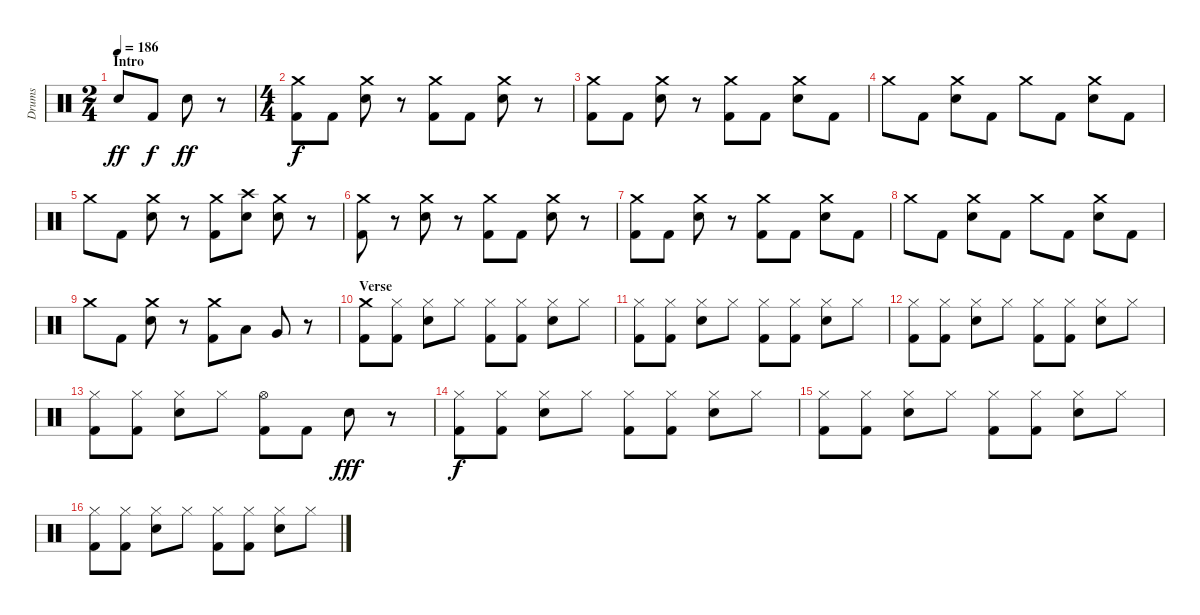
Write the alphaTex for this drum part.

\track ("Drums" "Drums") {instrument percussion}
\staff {score}
\articulation defaults
\ts (2 4)
\section ("" "Intro")
\tempo 186
\clef neutral
\ks c "Electric Snare (hit)".8{dy ff} "Kick (hit) 2".8{dy f} "Electric Snare (hit)".8{dy ff}
r.8 |
\ts (4 4)
("Crash medium (hit)" "Kick (hit) 2").8{dy f} "Kick (hit) 2".8 ("Crash medium (hit)" "Electric Snare (hit)").8 r.8 ("Crash medium (hit)" "Kick (hit) 2").8 "Kick (hit) 2".8 ("Crash medium (hit)" "Electric Snare (hit)").8 r.8 |
("Crash medium (hit)" "Kick (hit) 2").8 "Kick (hit) 2".8 ("Crash medium (hit)" "Electric Snare (hit)").8 r.8 ("Crash medium (hit)" "Kick (hit) 2").8 "Kick (hit) 2".8 ("Crash medium (hit)" "Electric Snare (hit)").8 "Kick (hit) 2".8 |
"Crash medium (hit)".8 "Kick (hit) 2".8 ("Crash medium (hit)" "Electric Snare (hit)").8 "Kick (hit) 2".8 "Crash medium (hit)".8 "Kick (hit) 2".8 ("Crash medium (hit)" "Electric Snare (hit)").8 "Kick (hit) 2".8 |
"Crash medium (hit)".8 "Kick (hit) 2".8 ("Crash medium (hit)" "Electric Snare (hit)").8 r.8 ("Crash medium (hit)" "Kick (hit) 2").8 ("Crash high (hit)" "Electric Snare (hit)").8 ("Crash medium (hit)" "Electric Snare (hit)").8 r.8 |
("Crash medium (hit)" "Kick (hit) 2").8 r.8 ("Crash medium (hit)" "Electric Snare (hit)").8 r.8 ("Crash medium (hit)" "Kick (hit) 2").8 "Kick (hit) 2".8 ("Crash medium (hit)" "Electric Snare (hit)").8 r.8 |
("Crash medium (hit)" "Kick (hit) 2").8 "Kick (hit) 2".8 ("Crash medium (hit)" "Electric Snare (hit)").8 r.8 ("Crash medium (hit)" "Kick (hit) 2").8 "Kick (hit) 2".8 ("Crash medium (hit)" "Electric Snare (hit)").8 "Kick (hit) 2".8 |
"Crash medium (hit)".8 "Kick (hit) 2".8 ("Crash medium (hit)" "Electric Snare (hit)").8 "Kick (hit) 2".8 "Crash medium (hit)".8 "Kick (hit) 2".8 ("Crash medium (hit)" "Electric Snare (hit)").8 "Kick (hit) 2".8 |
"Crash medium (hit)".8 "Kick (hit) 2".8 ("Crash medium (hit)" "Electric Snare (hit)").8 r.8 ("Crash medium (hit)" "Kick (hit) 2").8 "Low Tom (hit)".8 "Very Low Tom (hit)".8 r.8 |
\section ("" "Verse")
("Crash medium (hit)" "Kick (hit) 2").8 ("Hi-Hat (closed)" "Kick (hit) 2").8 ("Hi-Hat (closed)" "Electric Snare (hit)").8 "Hi-Hat (closed)".8 ("Hi-Hat (closed)" "Kick (hit) 2").8 ("Hi-Hat (closed)" "Kick (hit) 2").8 ("Hi-Hat (closed)" "Electric Snare (hit)").8 "Hi-Hat (closed)".8 |
("Hi-Hat (closed)" "Kick (hit) 2").8 ("Hi-Hat (closed)" "Kick (hit) 2").8 ("Hi-Hat (closed)" "Electric Snare (hit)").8 "Hi-Hat (closed)".8 ("Hi-Hat (closed)" "Kick (hit) 2").8 ("Hi-Hat (closed)" "Kick (hit) 2").8 ("Hi-Hat (closed)" "Electric Snare (hit)").8 "Hi-Hat (closed)".8 |
("Hi-Hat (closed)" "Kick (hit) 2").8 ("Hi-Hat (closed)" "Kick (hit) 2").8 ("Hi-Hat (closed)" "Electric Snare (hit)").8 "Hi-Hat (closed)".8 ("Hi-Hat (closed)" "Kick (hit) 2").8 ("Hi-Hat (closed)" "Kick (hit) 2").8 ("Hi-Hat (closed)" "Electric Snare (hit)").8 "Hi-Hat (closed)".8 |
("Hi-Hat (closed)" "Kick (hit) 2").8 ("Hi-Hat (closed)" "Kick (hit) 2").8 ("Hi-Hat (closed)" "Electric Snare (hit)").8 "Hi-Hat (closed)".8 ("Hi-Hat (open)" "Kick (hit) 2").8 "Kick (hit) 2".8 "Electric Snare (hit)".8{dy fff} r.8 |
("Hi-Hat (closed)" "Kick (hit) 2").8{dy f} ("Hi-Hat (closed)" "Kick (hit) 2").8 ("Hi-Hat (closed)" "Electric Snare (hit)").8 "Hi-Hat (closed)".8 ("Hi-Hat (closed)" "Kick (hit) 2").8 ("Hi-Hat (closed)" "Kick (hit) 2").8 ("Hi-Hat (closed)" "Electric Snare (hit)").8 "Hi-Hat (closed)".8 |
("Hi-Hat (closed)" "Kick (hit) 2").8 ("Hi-Hat (closed)" "Kick (hit) 2").8 ("Hi-Hat (closed)" "Electric Snare (hit)").8 "Hi-Hat (closed)".8 ("Hi-Hat (closed)" "Kick (hit) 2").8 ("Hi-Hat (closed)" "Kick (hit) 2").8 ("Hi-Hat (closed)" "Electric Snare (hit)").8 "Hi-Hat (closed)".8 |
("Hi-Hat (closed)" "Kick (hit) 2").8 ("Hi-Hat (closed)" "Kick (hit) 2").8 ("Hi-Hat (closed)" "Electric Snare (hit)").8 "Hi-Hat (closed)".8 ("Hi-Hat (closed)" "Kick (hit) 2").8 ("Hi-Hat (closed)" "Kick (hit) 2").8 ("Hi-Hat (closed)" "Electric Snare (hit)").8 "Hi-Hat (closed)".8
